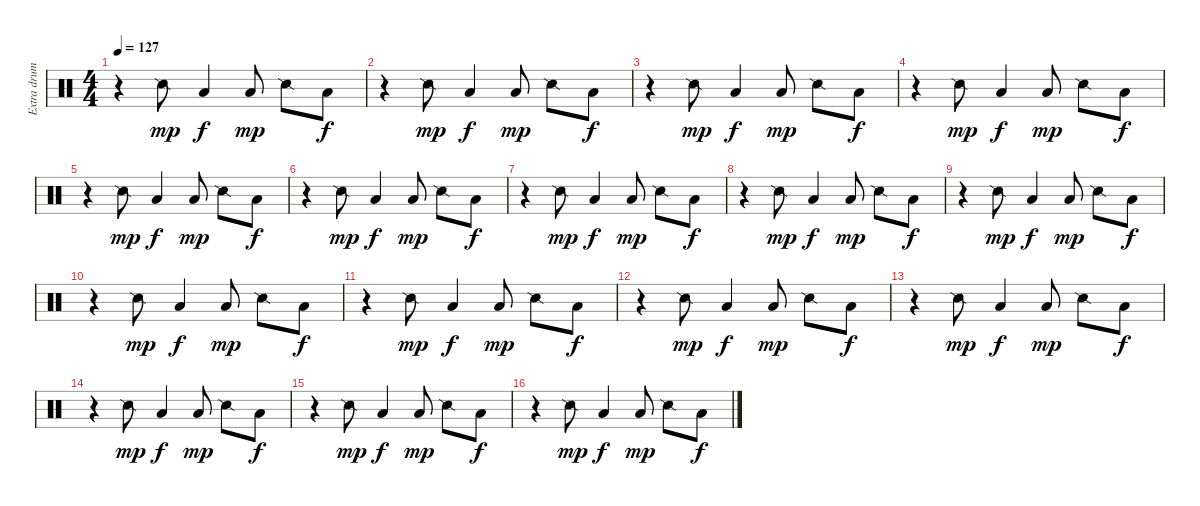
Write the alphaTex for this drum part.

\track ("Extra drums" "Extra drum") {instrument percussion}
\staff {score}
\articulation defaults
\ts (4 4)
\tempo 127
\clef neutral
\ks c
r.4{dy f} "Snare (side stick) 2".8{dy mp} "Low Tom (hit)".4{dy f} "Low Tom (hit)".8{dy mp} "Snare (side stick) 2".8 "Low Tom (hit)".8{dy f} |
r.4 "Snare (side stick) 2".8{dy mp} "Low Tom (hit)".4{dy f} "Low Tom (hit)".8{dy mp} "Snare (side stick) 2".8 "Low Tom (hit)".8{dy f} |
r.4 "Snare (side stick) 2".8{dy mp} "Low Tom (hit)".4{dy f} "Low Tom (hit)".8{dy mp} "Snare (side stick) 2".8 "Low Tom (hit)".8{dy f} |
r.4 "Snare (side stick) 2".8{dy mp} "Low Tom (hit)".4{dy f} "Low Tom (hit)".8{dy mp} "Snare (side stick) 2".8 "Low Tom (hit)".8{dy f} |
r.4 "Snare (side stick) 2".8{dy mp} "Low Tom (hit)".4{dy f} "Low Tom (hit)".8{dy mp} "Snare (side stick) 2".8 "Low Tom (hit)".8{dy f} |
r.4 "Snare (side stick) 2".8{dy mp} "Low Tom (hit)".4{dy f} "Low Tom (hit)".8{dy mp} "Snare (side stick) 2".8 "Low Tom (hit)".8{dy f} |
r.4 "Snare (side stick) 2".8{dy mp} "Low Tom (hit)".4{dy f} "Low Tom (hit)".8{dy mp} "Snare (side stick) 2".8 "Low Tom (hit)".8{dy f} |
r.4 "Snare (side stick) 2".8{dy mp} "Low Tom (hit)".4{dy f} "Low Tom (hit)".8{dy mp} "Snare (side stick) 2".8 "Low Tom (hit)".8{dy f} |
r.4 "Snare (side stick) 2".8{dy mp} "Low Tom (hit)".4{dy f} "Low Tom (hit)".8{dy mp} "Snare (side stick) 2".8 "Low Tom (hit)".8{dy f} |
r.4 "Snare (side stick) 2".8{dy mp} "Low Tom (hit)".4{dy f} "Low Tom (hit)".8{dy mp} "Snare (side stick) 2".8 "Low Tom (hit)".8{dy f} |
r.4 "Snare (side stick) 2".8{dy mp} "Low Tom (hit)".4{dy f} "Low Tom (hit)".8{dy mp} "Snare (side stick) 2".8 "Low Tom (hit)".8{dy f} |
r.4 "Snare (side stick) 2".8{dy mp} "Low Tom (hit)".4{dy f} "Low Tom (hit)".8{dy mp} "Snare (side stick) 2".8 "Low Tom (hit)".8{dy f} |
r.4 "Snare (side stick) 2".8{dy mp} "Low Tom (hit)".4{dy f} "Low Tom (hit)".8{dy mp} "Snare (side stick) 2".8 "Low Tom (hit)".8{dy f} |
r.4 "Snare (side stick) 2".8{dy mp} "Low Tom (hit)".4{dy f} "Low Tom (hit)".8{dy mp} "Snare (side stick) 2".8 "Low Tom (hit)".8{dy f} |
r.4 "Snare (side stick) 2".8{dy mp} "Low Tom (hit)".4{dy f} "Low Tom (hit)".8{dy mp} "Snare (side stick) 2".8 "Low Tom (hit)".8{dy f} |
r.4 "Snare (side stick) 2".8{dy mp} "Low Tom (hit)".4{dy f} "Low Tom (hit)".8{dy mp} "Snare (side stick) 2".8 "Low Tom (hit)".8{dy f}
